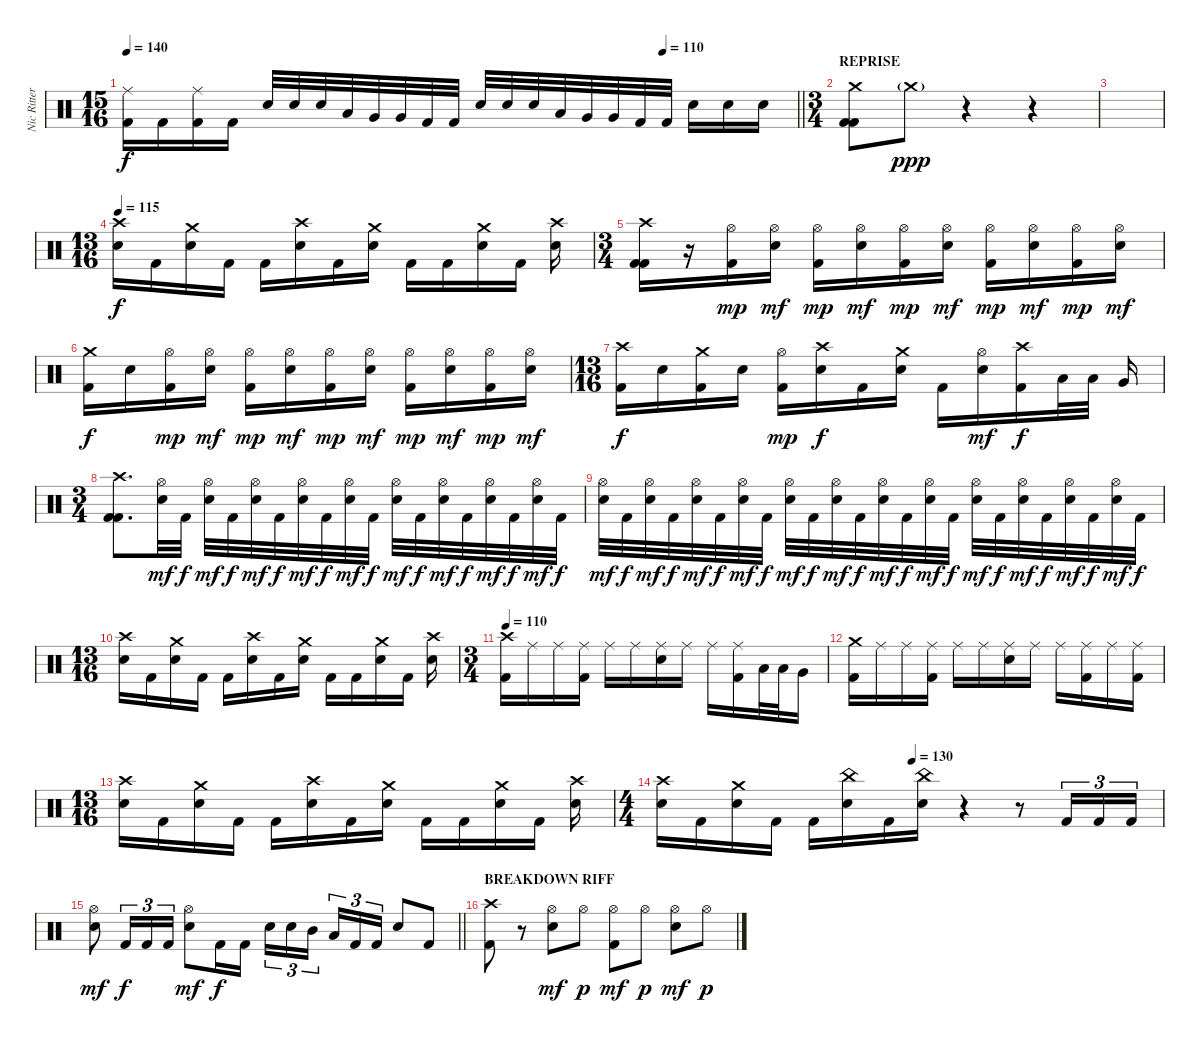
\track ("Nic Ritter" "Nic Ritter") {instrument percussion}
\staff {score}
\articulation defaults
\ts (15 16)
\tempo 140
\tempo (110 0.8)
\clef neutral
\barLineRight lightlight
\ks c
("Ride (middle)" "Kick (hit) 2").16{dy f} "Kick (hit) 2".16 ("Ride (middle)" "Kick (hit) 2").16 "Kick (hit) 2".16 "Electric Snare (hit)".32 "Electric Snare (hit)".32 "Electric Snare (hit)".32 "Low Tom (hit)".32 "Very Low Tom (hit)".32 "Very Low Tom (hit)".32 "Kick (hit) 2".32 "Kick (hit) 2".32 "Electric Snare (hit)".32 "Electric Snare (hit)".32 "Electric Snare (hit)".32 "Low Tom (hit)".32 "Very Low Tom (hit)".32 "Very Low Tom (hit)".32 "Kick (hit) 2".32 "Kick (hit) 2".32 "Electric Snare (hit)".16 "Electric Snare (hit)".16 "Electric Snare (hit)".16 |
\ts (3 4)
\section ("" "REPRISE")
("Crash medium (hit)" "Kick (hit) 2" "Kick (hit) 2").8 "Crash medium (hit)"{g}.8{dy ppp volume 0} r.4 r.4 |
|
\ts (13 16)
\tempo 115
("Crash high (hit)" "Electric Snare (hit)").16{dy f volume 14} "Kick (hit) 2".16 ("Crash medium (hit)" "Electric Snare (hit)").16 "Kick (hit) 2".16 "Kick (hit) 2".16 ("Crash high (hit)" "Electric Snare (hit)").16 "Kick (hit) 2".16 ("Crash medium (hit)" "Electric Snare (hit)").16 "Kick (hit) 2".16 "Kick (hit) 2".16 ("Crash medium (hit)" "Electric Snare (hit)").16 "Kick (hit) 2".16 ("Crash high (hit)" "Electric Snare (hit)").16 |
\ts (3 4)
("Crash high (hit)" "Kick (hit) 2" "Kick (hit) 2").16 r.16 ("Hi-Hat (open)" "Kick (hit) 2").16{dy mp} ("Hi-Hat (open)" "Electric Snare (hit)").16{dy mf} ("Hi-Hat (open)" "Kick (hit) 2").16{dy mp} ("Hi-Hat (open)" "Electric Snare (hit)").16{dy mf} ("Hi-Hat (open)" "Kick (hit) 2").16{dy mp} ("Hi-Hat (open)" "Electric Snare (hit)").16{dy mf} ("Hi-Hat (open)" "Kick (hit) 2").16{dy mp} ("Hi-Hat (open)" "Electric Snare (hit)").16{dy mf} ("Hi-Hat (open)" "Kick (hit) 2").16{dy mp} ("Hi-Hat (open)" "Electric Snare (hit)").16{dy mf} |
("Crash medium (hit)" "Kick (hit) 2").16{dy f} "Electric Snare (hit)".16 ("Hi-Hat (open)" "Kick (hit) 2").16{dy mp} ("Hi-Hat (open)" "Electric Snare (hit)").16{dy mf} ("Hi-Hat (open)" "Kick (hit) 2").16{dy mp} ("Hi-Hat (open)" "Electric Snare (hit)").16{dy mf} ("Hi-Hat (open)" "Kick (hit) 2").16{dy mp} ("Hi-Hat (open)" "Electric Snare (hit)").16{dy mf} ("Hi-Hat (open)" "Kick (hit) 2").16{dy mp} ("Hi-Hat (open)" "Electric Snare (hit)").16{dy mf} ("Hi-Hat (open)" "Kick (hit) 2").16{dy mp} ("Hi-Hat (open)" "Electric Snare (hit)").16{dy mf} |
\ts (13 16)
("Crash high (hit)" "Kick (hit) 2").16{dy f} "Electric Snare (hit)".16 ("Crash medium (hit)" "Kick (hit) 2").16 "Electric Snare (hit)".16 ("Hi-Hat (open)" "Kick (hit) 2").16{dy mp} ("Crash high (hit)" "Electric Snare (hit)").16{dy f} "Kick (hit) 2".16 ("Crash medium (hit)" "Electric Snare (hit)").16 "Kick (hit) 2".16 ("Hi-Hat (open)" "Electric Snare (hit)").16{dy mf} ("Crash high (hit)" "Kick (hit) 2").16{dy f} "Low Tom (hit)".32 "Low Tom (hit)".32 "Very Low Tom (hit)".16 |
\ts (3 4)
("Crash high (hit)" "Kick (hit) 2" "Kick (hit) 2").8{d} ("Hi-Hat (open)" "Electric Snare (hit)").32{dy mf} "Kick (hit) 2".32{dy f} ("Hi-Hat (open)" "Electric Snare (hit)").32{dy mf} "Kick (hit) 2".32{dy f} ("Hi-Hat (open)" "Electric Snare (hit)").32{dy mf} "Kick (hit) 2".32{dy f} ("Hi-Hat (open)" "Electric Snare (hit)").32{dy mf} "Kick (hit) 2".32{dy f} ("Hi-Hat (open)" "Electric Snare (hit)").32{dy mf} "Kick (hit) 2".32{dy f} ("Hi-Hat (open)" "Electric Snare (hit)").32{dy mf} "Kick (hit) 2".32{dy f} ("Hi-Hat (open)" "Electric Snare (hit)").32{dy mf} "Kick (hit) 2".32{dy f} ("Hi-Hat (open)" "Electric Snare (hit)").32{dy mf} "Kick (hit) 2".32{dy f} ("Hi-Hat (open)" "Electric Snare (hit)").32{dy mf} "Kick (hit) 2".32{dy f} |
("Hi-Hat (open)" "Electric Snare (hit)").32{dy mf} "Kick (hit) 2".32{dy f} ("Hi-Hat (open)" "Electric Snare (hit)").32{dy mf} "Kick (hit) 2".32{dy f} ("Hi-Hat (open)" "Electric Snare (hit)").32{dy mf} "Kick (hit) 2".32{dy f} ("Hi-Hat (open)" "Electric Snare (hit)").32{dy mf} "Kick (hit) 2".32{dy f} ("Hi-Hat (open)" "Electric Snare (hit)").32{dy mf} "Kick (hit) 2".32{dy f} ("Hi-Hat (open)" "Electric Snare (hit)").32{dy mf} "Kick (hit) 2".32{dy f} ("Hi-Hat (open)" "Electric Snare (hit)").32{dy mf} "Kick (hit) 2".32{dy f} ("Hi-Hat (open)" "Electric Snare (hit)").32{dy mf} "Kick (hit) 2".32{dy f} ("Hi-Hat (open)" "Electric Snare (hit)").32{dy mf} "Kick (hit) 2".32{dy f} ("Hi-Hat (open)" "Electric Snare (hit)").32{dy mf} "Kick (hit) 2".32{dy f} ("Hi-Hat (open)" "Electric Snare (hit)").32{dy mf} "Kick (hit) 2".32{dy f} ("Hi-Hat (open)" "Electric Snare (hit)").32{dy mf} "Kick (hit) 2".32{dy f} |
\ts (13 16)
("Crash high (hit)" "Electric Snare (hit)").16 "Kick (hit) 2".16 ("Crash medium (hit)" "Electric Snare (hit)").16 "Kick (hit) 2".16 "Kick (hit) 2".16 ("Crash high (hit)" "Electric Snare (hit)").16 "Kick (hit) 2".16 ("Crash medium (hit)" "Electric Snare (hit)").16 "Kick (hit) 2".16 "Kick (hit) 2".16 ("Crash medium (hit)" "Electric Snare (hit)").16 "Kick (hit) 2".16 ("Crash high (hit)" "Electric Snare (hit)").16 |
\ts (3 4)
\tempo 110
("Crash high (hit)" "Kick (hit) 2").16 "Ride (middle)".16 "Ride (middle)".16 ("Ride (middle)" "Kick (hit) 2").16 "Ride (middle)".16 "Ride (middle)".16 ("Ride (middle)" "Electric Snare (hit)").16 "Ride (middle)".16 "Ride (middle)".16 ("Ride (middle)" "Kick (hit) 2").16 "Low Tom (hit)".32 "Low Tom (hit)".32 "Very Low Tom (hit)".16 |
("Crash medium (hit)" "Kick (hit) 2").16 "Ride (middle)".16 "Ride (middle)".16 ("Ride (middle)" "Kick (hit) 2").16 "Ride (middle)".16 "Ride (middle)".16 ("Ride (middle)" "Electric Snare (hit)").16 "Ride (middle)".16 "Ride (middle)".16 ("Ride (middle)" "Kick (hit) 2").16 "Ride (middle)".16 ("Ride (middle)" "Kick (hit) 2").16 |
\ts (13 16)
("Crash high (hit)" "Electric Snare (hit)").16 "Kick (hit) 2".16 ("Crash medium (hit)" "Electric Snare (hit)").16 "Kick (hit) 2".16 "Kick (hit) 2".16 ("Crash high (hit)" "Electric Snare (hit)").16 "Kick (hit) 2".16 ("Crash medium (hit)" "Electric Snare (hit)").16 "Kick (hit) 2".16 "Kick (hit) 2".16 ("Crash medium (hit)" "Electric Snare (hit)").16 "Kick (hit) 2".16 ("Crash high (hit)" "Electric Snare (hit)").16 |
\ts (4 4)
\tempo (130 0.5)
("Crash high (hit)" "Electric Snare (hit)").16 "Kick (hit) 2".16 ("Crash medium (hit)" "Electric Snare (hit)").16 "Kick (hit) 2".16 "Kick (hit) 2".16 ("China (hit)" "Electric Snare (hit)").16 "Kick (hit) 2".16 ("China (hit)" "Electric Snare (hit)").16 r.4 r.8 "Kick (hit) 2".16{tu (3 2)} "Kick (hit) 2".16{tu (3 2)} "Kick (hit) 2".16{tu (3 2)} |
\barLineRight lightlight
("Hi-Hat (open)" "Electric Snare (hit)").8{dy mf} "Kick (hit) 2".16{tu (3 2) dy f} "Kick (hit) 2".16{tu (3 2)} "Kick (hit) 2".16{tu (3 2)} ("Hi-Hat (open)" "Electric Snare (hit)").8{dy mf} "Kick (hit) 2".16{dy f} "Kick (hit) 2".16 "Electric Snare (hit)".16{tu (3 2)} "Electric Snare (hit)".16{tu (3 2)} "Mid Tom (hit)".16{tu (3 2) beam splitsecondary} "Low Tom (hit)".16{tu (3 2)} "Kick (hit) 2".16{tu (3 2)} "Kick (hit) 2".16{tu (3 2)} "Electric Snare (hit)".8 "Kick (hit) 2".8 |
\section ("" "BREAKDOWN RIFF")
("Crash high (hit)" "Kick (hit) 2").8 r.8 ("Hi-Hat (open)" "Electric Snare (hit)").8{dy mf} "Hi-Hat (open)".8{dy p} ("Hi-Hat (open)" "Kick (hit) 2").8{dy mf} "Hi-Hat (open)".8{dy p} ("Hi-Hat (open)" "Electric Snare (hit)").8{dy mf} "Hi-Hat (open)".8{dy p}
